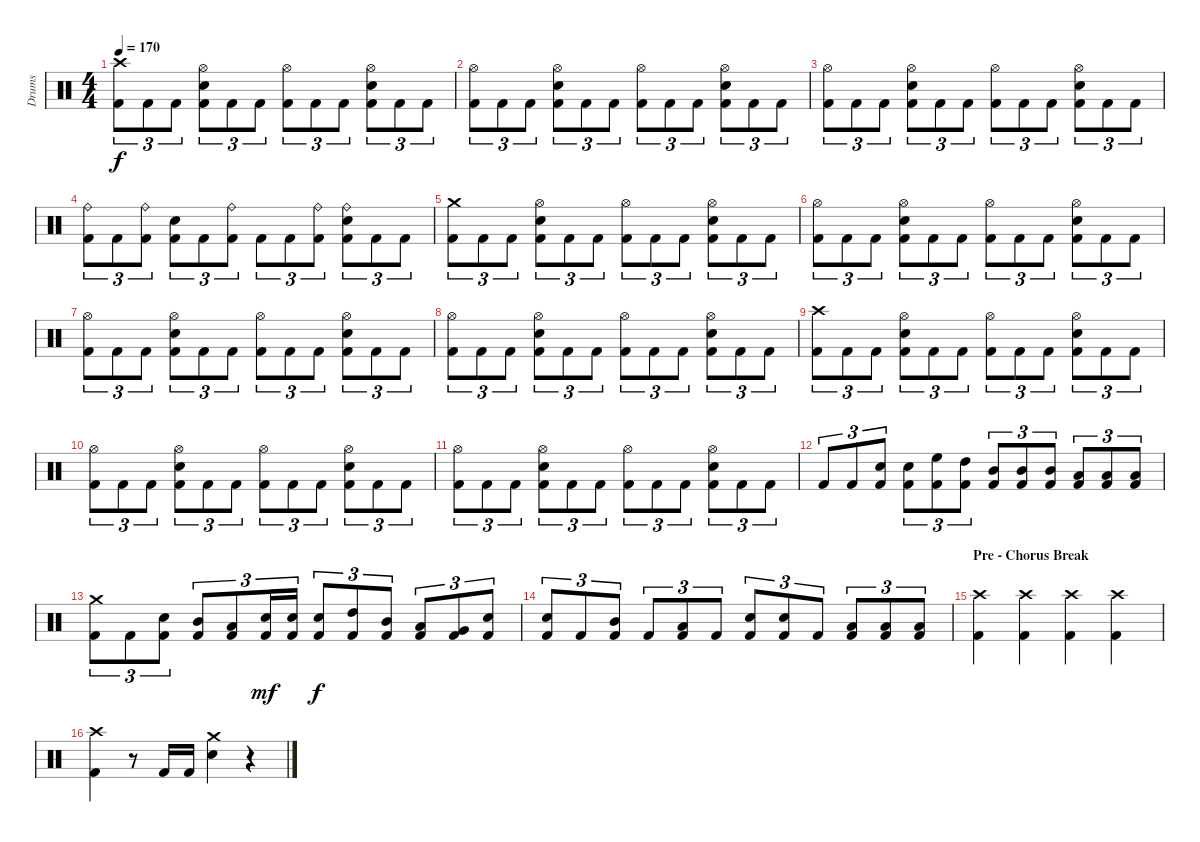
\track ("Drums" "Drums") {instrument percussion}
\staff {score}
\articulation defaults
\ts (4 4)
\tempo 170
\clef neutral
\ks c
("Kick (hit) 2" "Crash high (hit)").8{tu (3 2) dy f} "Kick (hit) 2".8{tu (3 2)} "Kick (hit) 2".8{tu (3 2)} ("Kick (hit) 2" "Electric Snare (hit)" "Hi-Hat (open)").8{tu (3 2)} "Kick (hit) 2".8{tu (3 2)} "Kick (hit) 2".8{tu (3 2)} ("Kick (hit) 2" "Hi-Hat (open)").8{tu (3 2)} "Kick (hit) 2".8{tu (3 2)} "Kick (hit) 2".8{tu (3 2)} ("Kick (hit) 2" "Electric Snare (hit)" "Hi-Hat (open)").8{tu (3 2)} "Kick (hit) 2".8{tu (3 2)} "Kick (hit) 2".8{tu (3 2)} |
("Kick (hit) 2" "Hi-Hat (open)").8{tu (3 2)} "Kick (hit) 2".8{tu (3 2)} "Kick (hit) 2".8{tu (3 2)} ("Kick (hit) 2" "Electric Snare (hit)" "Hi-Hat (open)").8{tu (3 2)} "Kick (hit) 2".8{tu (3 2)} "Kick (hit) 2".8{tu (3 2)} ("Kick (hit) 2" "Hi-Hat (open)").8{tu (3 2)} "Kick (hit) 2".8{tu (3 2)} "Kick (hit) 2".8{tu (3 2)} ("Kick (hit) 2" "Electric Snare (hit)" "Hi-Hat (open)").8{tu (3 2)} "Kick (hit) 2".8{tu (3 2)} "Kick (hit) 2".8{tu (3 2)} |
("Kick (hit) 2" "Hi-Hat (open)").8{tu (3 2)} "Kick (hit) 2".8{tu (3 2)} "Kick (hit) 2".8{tu (3 2)} ("Kick (hit) 2" "Electric Snare (hit)" "Hi-Hat (open)").8{tu (3 2)} "Kick (hit) 2".8{tu (3 2)} "Kick (hit) 2".8{tu (3 2)} ("Kick (hit) 2" "Hi-Hat (open)").8{tu (3 2)} "Kick (hit) 2".8{tu (3 2)} "Kick (hit) 2".8{tu (3 2)} ("Kick (hit) 2" "Electric Snare (hit)" "Hi-Hat (open)").8{tu (3 2)} "Kick (hit) 2".8{tu (3 2)} "Kick (hit) 2".8{tu (3 2)} |
("Kick (hit) 2" "Ride (bell)").8{tu (3 2)} "Kick (hit) 2".8{tu (3 2)} ("Kick (hit) 2" "Ride (bell)").8{tu (3 2)} ("Kick (hit) 2" "Electric Snare (hit)").8{tu (3 2)} "Kick (hit) 2".8{tu (3 2)} ("Kick (hit) 2" "Ride (bell)").8{tu (3 2)} "Kick (hit) 2".8{tu (3 2)} "Kick (hit) 2".8{tu (3 2)} ("Kick (hit) 2" "Ride (bell)").8{tu (3 2)} ("Kick (hit) 2" "Electric Snare (hit)" "Ride (bell)").8{tu (3 2)} "Kick (hit) 2".8{tu (3 2)} "Kick (hit) 2".8{tu (3 2)} |
("Kick (hit) 2" "Crash medium (hit)").8{tu (3 2)} "Kick (hit) 2".8{tu (3 2)} "Kick (hit) 2".8{tu (3 2)} ("Kick (hit) 2" "Electric Snare (hit)" "Hi-Hat (open)").8{tu (3 2)} "Kick (hit) 2".8{tu (3 2)} "Kick (hit) 2".8{tu (3 2)} ("Kick (hit) 2" "Hi-Hat (open)").8{tu (3 2)} "Kick (hit) 2".8{tu (3 2)} "Kick (hit) 2".8{tu (3 2)} ("Kick (hit) 2" "Electric Snare (hit)" "Hi-Hat (open)").8{tu (3 2)} "Kick (hit) 2".8{tu (3 2)} "Kick (hit) 2".8{tu (3 2)} |
("Kick (hit) 2" "Hi-Hat (open)").8{tu (3 2)} "Kick (hit) 2".8{tu (3 2)} "Kick (hit) 2".8{tu (3 2)} ("Kick (hit) 2" "Electric Snare (hit)" "Hi-Hat (open)").8{tu (3 2)} "Kick (hit) 2".8{tu (3 2)} "Kick (hit) 2".8{tu (3 2)} ("Kick (hit) 2" "Hi-Hat (open)").8{tu (3 2)} "Kick (hit) 2".8{tu (3 2)} "Kick (hit) 2".8{tu (3 2)} ("Kick (hit) 2" "Electric Snare (hit)" "Hi-Hat (open)").8{tu (3 2)} "Kick (hit) 2".8{tu (3 2)} "Kick (hit) 2".8{tu (3 2)} |
("Kick (hit) 2" "Hi-Hat (open)").8{tu (3 2)} "Kick (hit) 2".8{tu (3 2)} "Kick (hit) 2".8{tu (3 2)} ("Kick (hit) 2" "Electric Snare (hit)" "Hi-Hat (open)").8{tu (3 2)} "Kick (hit) 2".8{tu (3 2)} "Kick (hit) 2".8{tu (3 2)} ("Kick (hit) 2" "Hi-Hat (open)").8{tu (3 2)} "Kick (hit) 2".8{tu (3 2)} "Kick (hit) 2".8{tu (3 2)} ("Kick (hit) 2" "Electric Snare (hit)" "Hi-Hat (open)").8{tu (3 2)} "Kick (hit) 2".8{tu (3 2)} "Kick (hit) 2".8{tu (3 2)} |
("Kick (hit) 2" "Hi-Hat (open)").8{tu (3 2)} "Kick (hit) 2".8{tu (3 2)} "Kick (hit) 2".8{tu (3 2)} ("Kick (hit) 2" "Electric Snare (hit)" "Hi-Hat (open)").8{tu (3 2)} "Kick (hit) 2".8{tu (3 2)} "Kick (hit) 2".8{tu (3 2)} ("Kick (hit) 2" "Hi-Hat (open)").8{tu (3 2)} "Kick (hit) 2".8{tu (3 2)} "Kick (hit) 2".8{tu (3 2)} ("Kick (hit) 2" "Electric Snare (hit)" "Hi-Hat (open)").8{tu (3 2)} "Kick (hit) 2".8{tu (3 2)} "Kick (hit) 2".8{tu (3 2)} |
("Kick (hit) 2" "Crash high (hit)").8{tu (3 2)} "Kick (hit) 2".8{tu (3 2)} "Kick (hit) 2".8{tu (3 2)} ("Kick (hit) 2" "Electric Snare (hit)" "Hi-Hat (open)").8{tu (3 2)} "Kick (hit) 2".8{tu (3 2)} "Kick (hit) 2".8{tu (3 2)} ("Kick (hit) 2" "Hi-Hat (open)").8{tu (3 2)} "Kick (hit) 2".8{tu (3 2)} "Kick (hit) 2".8{tu (3 2)} ("Kick (hit) 2" "Electric Snare (hit)" "Hi-Hat (open)").8{tu (3 2)} "Kick (hit) 2".8{tu (3 2)} "Kick (hit) 2".8{tu (3 2)} |
("Kick (hit) 2" "Hi-Hat (open)").8{tu (3 2)} "Kick (hit) 2".8{tu (3 2)} "Kick (hit) 2".8{tu (3 2)} ("Kick (hit) 2" "Electric Snare (hit)" "Hi-Hat (open)").8{tu (3 2)} "Kick (hit) 2".8{tu (3 2)} "Kick (hit) 2".8{tu (3 2)} ("Kick (hit) 2" "Hi-Hat (open)").8{tu (3 2)} "Kick (hit) 2".8{tu (3 2)} "Kick (hit) 2".8{tu (3 2)} ("Kick (hit) 2" "Electric Snare (hit)" "Hi-Hat (open)").8{tu (3 2)} "Kick (hit) 2".8{tu (3 2)} "Kick (hit) 2".8{tu (3 2)} |
("Kick (hit) 2" "Hi-Hat (open)").8{tu (3 2)} "Kick (hit) 2".8{tu (3 2)} "Kick (hit) 2".8{tu (3 2)} ("Kick (hit) 2" "Electric Snare (hit)" "Hi-Hat (open)").8{tu (3 2)} "Kick (hit) 2".8{tu (3 2)} "Kick (hit) 2".8{tu (3 2)} ("Kick (hit) 2" "Hi-Hat (open)").8{tu (3 2)} "Kick (hit) 2".8{tu (3 2)} "Kick (hit) 2".8{tu (3 2)} ("Kick (hit) 2" "Electric Snare (hit)" "Hi-Hat (open)").8{tu (3 2)} "Kick (hit) 2".8{tu (3 2)} "Kick (hit) 2".8{tu (3 2)} |
"Kick (hit) 2".8{tu (3 2)} "Kick (hit) 2".8{tu (3 2)} ("Kick (hit) 2" "Electric Snare (hit)").8{tu (3 2)} ("Kick (hit) 2" "Electric Snare (hit)").8{tu (3 2)} ("Kick (hit) 2" "High Floor Tom (hit)").8{tu (3 2)} ("Kick (hit) 2" "High Tom (hit)").8{tu (3 2)} ("Kick (hit) 2" "Mid Tom (hit)").8{tu (3 2)} ("Kick (hit) 2" "Mid Tom (hit)").8{tu (3 2)} ("Kick (hit) 2" "Mid Tom (hit)").8{tu (3 2)} ("Kick (hit) 2" "Low Tom (hit)").8{tu (3 2)} ("Kick (hit) 2" "Low Tom (hit)").8{tu (3 2)} ("Kick (hit) 2" "Low Tom (hit)").8{tu (3 2)} |
("Kick (hit) 2" "Crash medium (hit)").8{tu (3 2)} "Kick (hit) 2".8{tu (3 2)} ("Kick (hit) 2" "Electric Snare (hit)").8{tu (3 2)} ("Kick (hit) 2" "Mid Tom (hit)").8{tu (3 2)} ("Kick (hit) 2" "Low Tom (hit)").8{tu (3 2)} ("Kick (hit) 2" "Electric Snare (hit)").16{tu (3 2) dy mf} ("Kick (hit) 2" "Electric Snare (hit)").16{tu (3 2)} ("Kick (hit) 2" "Electric Snare (hit)").8{tu (3 2) dy f} ("Kick (hit) 2" "High Tom (hit)").8{tu (3 2)} ("Kick (hit) 2" "Mid Tom (hit)").8{tu (3 2)} ("Kick (hit) 2" "Low Tom (hit)").8{tu (3 2)} ("Kick (hit) 2" "Very Low Tom (hit)").8{tu (3 2)} ("Kick (hit) 2" "Electric Snare (hit)").8{tu (3 2)} |
("Kick (hit) 2" "Electric Snare (hit)").8{tu (3 2)} "Kick (hit) 2".8{tu (3 2)} ("Kick (hit) 2" "Mid Tom (hit)").8{tu (3 2)} "Kick (hit) 2".8{tu (3 2)} ("Kick (hit) 2" "Low Tom (hit)").8{tu (3 2)} "Kick (hit) 2".8{tu (3 2)} ("Kick (hit) 2" "Electric Snare (hit)").8{tu (3 2)} ("Kick (hit) 2" "Electric Snare (hit)").8{tu (3 2)} "Kick (hit) 2".8{tu (3 2)} ("Kick (hit) 2" "Low Tom (hit)").8{tu (3 2)} ("Kick (hit) 2" "Low Tom (hit)").8{tu (3 2)} ("Kick (hit) 2" "Low Tom (hit)").8{tu (3 2)} |
\section ("" "Pre - Chorus Break")
("Kick (hit) 2" "Crash high (hit)").4 ("Kick (hit) 2" "Crash high (hit)").4 ("Kick (hit) 2" "Crash high (hit)").4 ("Kick (hit) 2" "Crash high (hit)").4 |
("Kick (hit) 2" "Crash high (hit)").4 r.8 "Kick (hit) 2".16 "Kick (hit) 2".16 ("Electric Snare (hit)" "Crash medium (hit)").4 r.4
